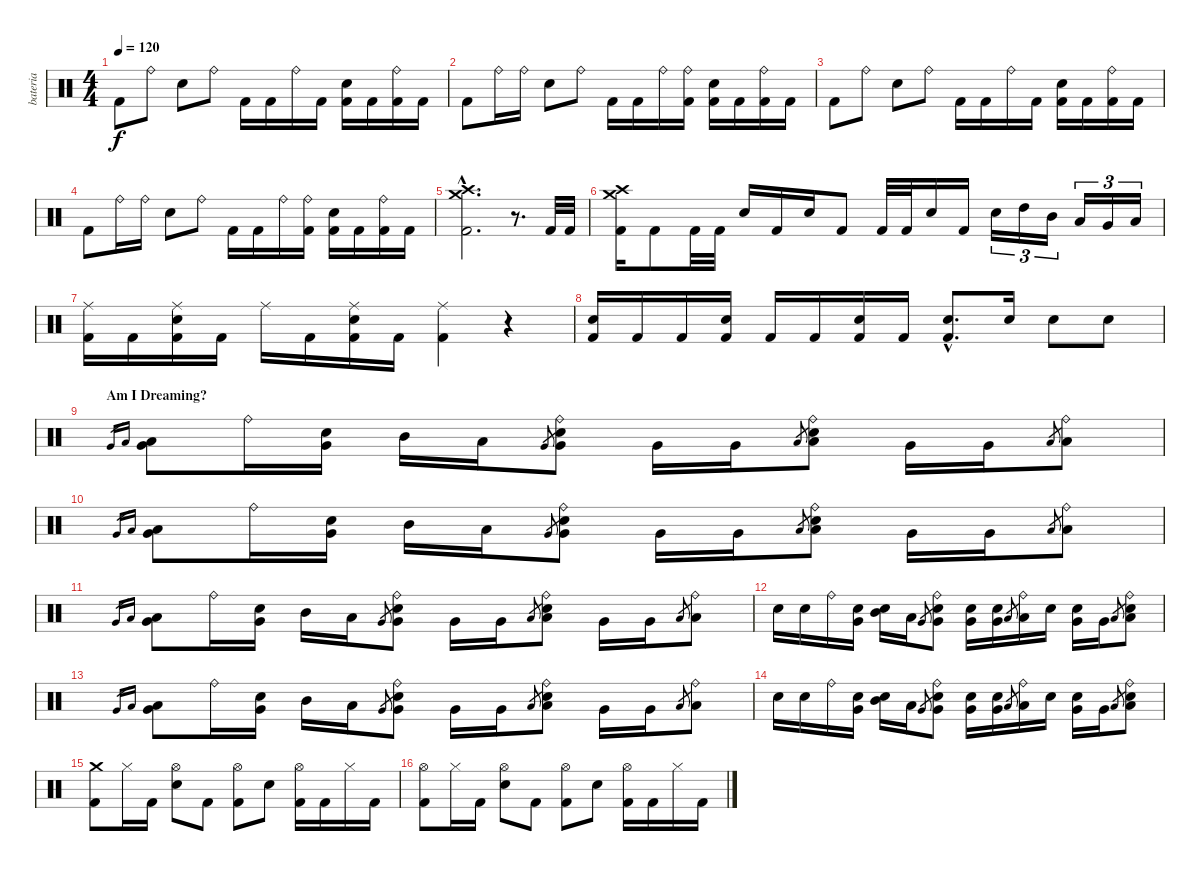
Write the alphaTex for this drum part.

\track ("bateria" "bateria") {instrument percussion}
\staff {score}
\articulation defaults
\ts (4 4)
\tempo 120
\clef neutral
\ks c "Kick (hit) 2".8{dy f} "Ride (bell)".8 "Electric Snare (hit)".8 "Ride (bell)".8 "Kick (hit) 2".16 "Kick (hit) 2".16 "Ride (bell)".16 "Kick (hit) 2".16
("Electric Snare (hit)" "Kick (hit) 2").16 "Kick (hit) 2".16 ("Ride (bell)" "Kick (hit) 2").16 "Kick (hit) 2".16 |
"Kick (hit) 2".8 "Ride (bell)".16 "Ride (bell)".16 "Electric Snare (hit)".8 "Ride (bell)".8 "Kick (hit) 2".16 "Kick (hit) 2".16 "Ride (bell)".16 ("Ride (bell)" "Kick (hit) 2").16 ("Electric Snare (hit)" "Kick (hit) 2").16 "Kick (hit) 2".16 ("Ride (bell)" "Kick (hit) 2").16 "Kick (hit) 2".16 |
"Kick (hit) 2".8 "Ride (bell)".8 "Electric Snare (hit)".8 "Ride (bell)".8 "Kick (hit) 2".16 "Kick (hit) 2".16 "Ride (bell)".16 "Kick (hit) 2".16 ("Electric Snare (hit)" "Kick (hit) 2").16 "Kick (hit) 2".16 ("Ride (bell)" "Kick (hit) 2").16 "Kick (hit) 2".16 |
"Kick (hit) 2".8 "Ride (bell)".16 "Ride (bell)".16 "Electric Snare (hit)".8 "Ride (bell)".8 "Kick (hit) 2".16 "Kick (hit) 2".16 "Ride (bell)".16 ("Ride (bell)" "Kick (hit) 2").16 ("Electric Snare (hit)" "Kick (hit) 2").16 "Kick (hit) 2".16 ("Ride (bell)" "Kick (hit) 2").16 "Kick (hit) 2".16 |
("Crash medium (hit)"{hac} "Crash high (hit)"{hac} "Kick (hit) 2"{hac}).2{d} r.8{d} "Kick (hit) 2".32 "Kick (hit) 2".32 |
("Crash medium (hit)" "Crash high (hit)" "Kick (hit) 2").16 "Kick (hit) 2".8 "Kick (hit) 2".32 "Kick (hit) 2".32 "Electric Snare (hit)".16 "Kick (hit) 2".16 "Electric Snare (hit)".16 "Kick (hit) 2".8 "Kick (hit) 2".32 "Kick (hit) 2".32 "Electric Snare (hit)".16 "Kick (hit) 2".16 "Electric Snare (hit)".16{tu (3 2)} "High Tom (hit)".16{tu (3 2)} "Mid Tom (hit)".16{tu (3 2)} "Low Tom (hit)".16{tu (3 2)} "Very Low Tom (hit)".16{tu (3 2)} "Low Floor Tom (hit)".16{tu (3 2)} |
("Ride (middle)" "Kick (hit) 2").16 "Kick (hit) 2".16 ("Ride (middle)" "Electric Snare (hit)" "Kick (hit) 2").16 "Kick (hit) 2".16 "Ride (middle)".16 "Kick (hit) 2".16 ("Ride (middle)" "Electric Snare (hit)" "Kick (hit) 2").16 "Kick (hit) 2".16 ("Ride (middle)" "Kick (hit) 2").4 r.4 |
("Electric Snare (hit)" "Kick (hit) 2").16 "Kick (hit) 2".16 "Kick (hit) 2".16 ("Electric Snare (hit)" "Kick (hit) 2").16 "Kick (hit) 2".16 "Kick (hit) 2".16 ("Electric Snare (hit)" "Kick (hit) 2").16 "Kick (hit) 2".16 ("Electric Snare (hit)"{hac} "Kick (hit) 2"{hac}).8{d} "Electric Snare (hit)".16 "Electric Snare (hit)".8 "Electric Snare (hit)".8 |
\section ("" "Am I Dreaming?")
"Very Low Tom (hit)".16{gr} "Low Floor Tom (hit)".16{gr} ("Very Low Tom (hit)" "Low Floor Tom (hit)").8 "Ride (bell)".16 ("Very Low Tom (hit)" "Electric Snare (hit)").16 "Mid Tom (hit)".16 "Low Tom (hit)".16 "Very Low Tom (hit)".8{gr} ("Ride (bell)" "Very Low Tom (hit)" "Electric Snare (hit)").8 "Very Low Tom (hit)".16 "Very Low Tom (hit)".16 "Low Floor Tom (hit)".8{gr} ("Ride (bell)" "Low Floor Tom (hit)" "Electric Snare (hit)").8 "Very Low Tom (hit)".16 "Very Low Tom (hit)".16 "Low Floor Tom (hit)".8{gr} ("Ride (bell)" "Low Floor Tom (hit)").8 |
"Very Low Tom (hit)".16{gr} "Low Floor Tom (hit)".16{gr} ("Very Low Tom (hit)" "Low Floor Tom (hit)").8 "Ride (bell)".16 ("Very Low Tom (hit)" "Electric Snare (hit)").16 "Mid Tom (hit)".16 "Low Tom (hit)".16 "Very Low Tom (hit)".8{gr} ("Ride (bell)" "Very Low Tom (hit)" "Electric Snare (hit)").8 "Very Low Tom (hit)".16 "Very Low Tom (hit)".16 "Low Floor Tom (hit)".8{gr} ("Ride (bell)" "Low Floor Tom (hit)" "Electric Snare (hit)").8 "Very Low Tom (hit)".16 "Very Low Tom (hit)".16 "Low Floor Tom (hit)".8{gr} ("Ride (bell)" "Low Floor Tom (hit)").8 |
"Very Low Tom (hit)".16{gr} "Low Floor Tom (hit)".16{gr} ("Very Low Tom (hit)" "Low Floor Tom (hit)").8 "Ride (bell)".16 ("Very Low Tom (hit)" "Electric Snare (hit)").16 "Mid Tom (hit)".16 "Low Tom (hit)".16 "Very Low Tom (hit)".8{gr} ("Ride (bell)" "Very Low Tom (hit)" "Electric Snare (hit)").8 "Very Low Tom (hit)".16 "Very Low Tom (hit)".16 "Low Floor Tom (hit)".8{gr} ("Ride (bell)" "Low Floor Tom (hit)" "Electric Snare (hit)").8 "Very Low Tom (hit)".16 "Very Low Tom (hit)".16 "Low Floor Tom (hit)".8{gr} ("Ride (bell)" "Low Floor Tom (hit)").8 |
"Electric Snare (hit)".16 "Electric Snare (hit)".16 "Ride (bell)".16 ("Very Low Tom (hit)" "Electric Snare (hit)").16 ("Mid Tom (hit)" "Electric Snare (hit)").16 "Low Tom (hit)".16 "Very Low Tom (hit)".8{gr} ("Ride (bell)" "Very Low Tom (hit)" "Electric Snare (hit)").8 ("Very Low Tom (hit)" "Electric Snare (hit)").16 ("Very Low Tom (hit)" "Electric Snare (hit)").16 "Low Floor Tom (hit)".8{gr} ("Ride (bell)" "Low Floor Tom (hit)").16 "Electric Snare (hit)".16 ("Very Low Tom (hit)" "Electric Snare (hit)").16 "Very Low Tom (hit)".16 "Low Floor Tom (hit)".8{gr} ("Ride (bell)" "Low Floor Tom (hit)" "Electric Snare (hit)").8 |
"Very Low Tom (hit)".16{gr} "Low Floor Tom (hit)".16{gr} ("Very Low Tom (hit)" "Low Floor Tom (hit)").8 "Ride (bell)".16 ("Very Low Tom (hit)" "Electric Snare (hit)").16 "Mid Tom (hit)".16 "Low Tom (hit)".16 "Very Low Tom (hit)".8{gr} ("Ride (bell)" "Very Low Tom (hit)" "Electric Snare (hit)").8 "Very Low Tom (hit)".16 "Very Low Tom (hit)".16 "Low Floor Tom (hit)".8{gr} ("Ride (bell)" "Low Floor Tom (hit)" "Electric Snare (hit)").8 "Very Low Tom (hit)".16 "Very Low Tom (hit)".16 "Low Floor Tom (hit)".8{gr} ("Ride (bell)" "Low Floor Tom (hit)").8 |
"Electric Snare (hit)".16 "Electric Snare (hit)".16 "Ride (bell)".16 ("Very Low Tom (hit)" "Electric Snare (hit)").16 ("Mid Tom (hit)" "Electric Snare (hit)").16 "Low Tom (hit)".16 "Very Low Tom (hit)".8{gr} ("Ride (bell)" "Very Low Tom (hit)" "Electric Snare (hit)").8 ("Very Low Tom (hit)" "Electric Snare (hit)").16 ("Very Low Tom (hit)" "Electric Snare (hit)").16 "Low Floor Tom (hit)".8{gr} ("Ride (bell)" "Low Floor Tom (hit)").16 "Electric Snare (hit)".16 ("Very Low Tom (hit)" "Electric Snare (hit)").16 "Very Low Tom (hit)".16 "Low Floor Tom (hit)".8{gr} ("Ride (bell)" "Low Floor Tom (hit)" "Electric Snare (hit)").8 |
("Crash medium (hit)" "Kick (hit) 2").8 "Hi-Hat (closed)".16 "Kick (hit) 2".16 ("Hi-Hat (open)" "Electric Snare (hit)").8 "Kick (hit) 2".8 ("Hi-Hat (open)" "Kick (hit) 2").8 "Electric Snare (hit)".8 ("Hi-Hat (open)" "Kick (hit) 2").16 "Kick (hit) 2".16 "Hi-Hat (closed)".16 "Kick (hit) 2".16 |
("Hi-Hat (open)" "Kick (hit) 2").8 "Hi-Hat (closed)".16 "Kick (hit) 2".16 ("Hi-Hat (open)" "Electric Snare (hit)").8 "Kick (hit) 2".8 ("Hi-Hat (open)" "Kick (hit) 2").8 "Electric Snare (hit)".8 ("Hi-Hat (open)" "Kick (hit) 2").16 "Kick (hit) 2".16 "Hi-Hat (closed)".16 "Kick (hit) 2".16
